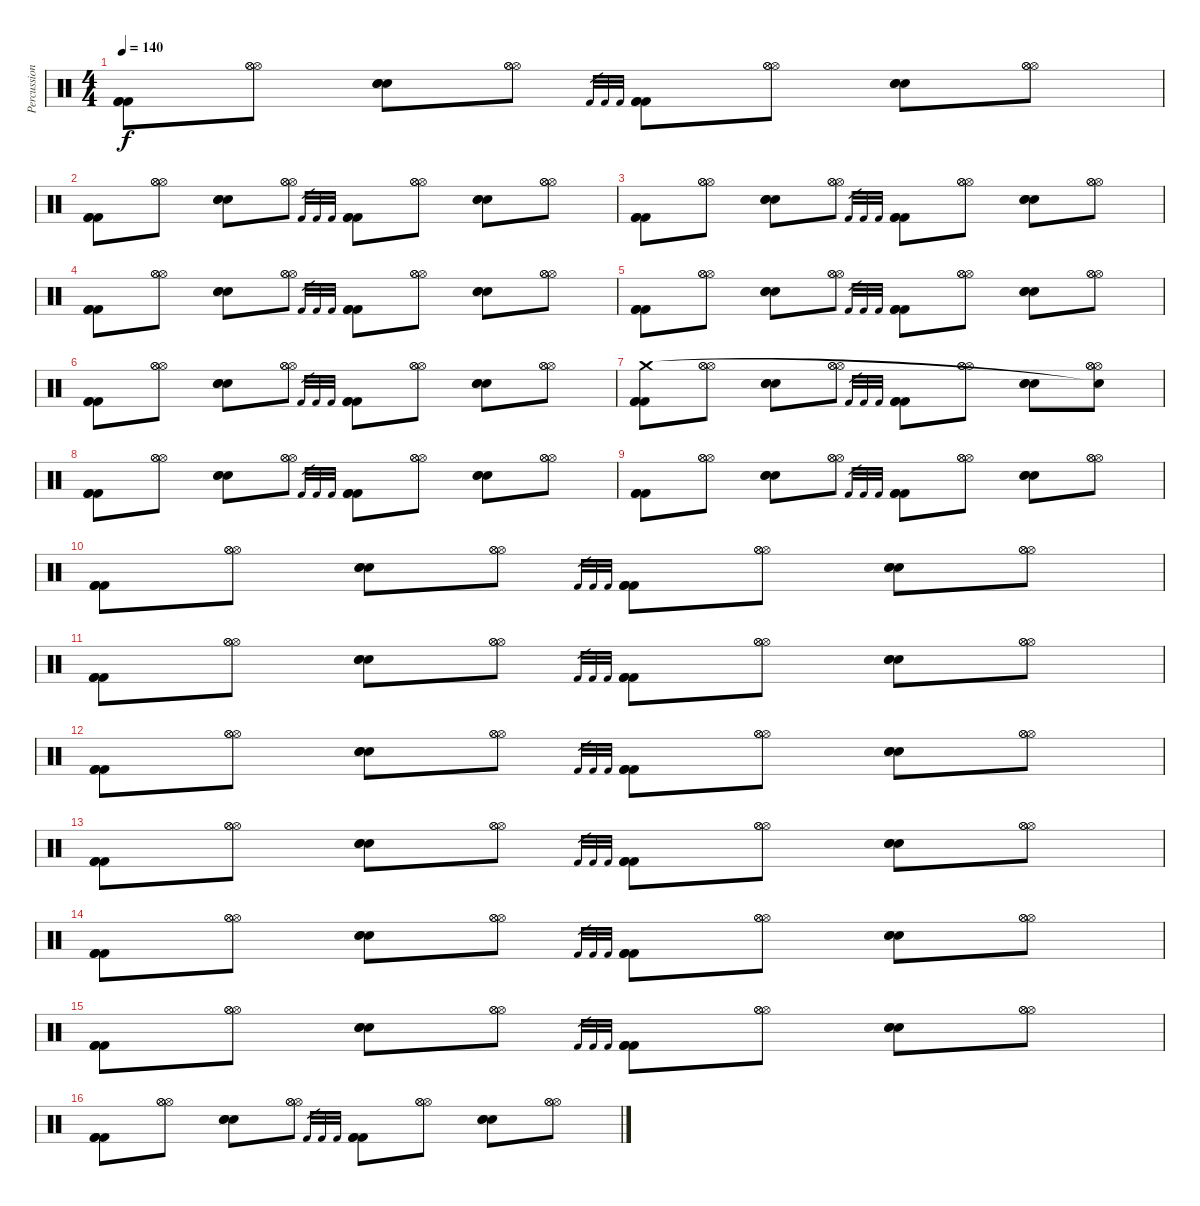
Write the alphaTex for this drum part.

\track ("Percussion" "Percussion") {instrument percussion}
\staff {score}
\articulation defaults
\ts (4 4)
\tempo 140
\clef neutral
\ks c
("Kick (hit) 2" "Kick (hit) 2" "Kick (hit) 2").8{dy f} ("Hi-Hat (open)" "Hi-Hat (open)" "Hi-Hat (open)").8 ("Electric Snare (hit)" "Electric Snare (hit)" "Electric Snare (hit)").8 ("Hi-Hat (open)" "Hi-Hat (open)" "Hi-Hat (open)").8 "Kick (hit) 2".32{gr} "Kick (hit) 2".32{gr} "Kick (hit) 2".32{gr} ("Kick (hit) 2" "Kick (hit) 2" "Kick (hit) 2").8 ("Hi-Hat (open)" "Hi-Hat (open)" "Hi-Hat (open)").8 ("Electric Snare (hit)" "Electric Snare (hit)" "Electric Snare (hit)").8 ("Hi-Hat (open)" "Hi-Hat (open)" "Hi-Hat (open)").8 |
("Kick (hit) 2" "Kick (hit) 2" "Kick (hit) 2").8 ("Hi-Hat (open)" "Hi-Hat (open)" "Hi-Hat (open)").8 ("Electric Snare (hit)" "Electric Snare (hit)" "Electric Snare (hit)").8 ("Hi-Hat (open)" "Hi-Hat (open)" "Hi-Hat (open)").8 "Kick (hit) 2".32{gr} "Kick (hit) 2".32{gr} "Kick (hit) 2".32{gr} ("Kick (hit) 2" "Kick (hit) 2" "Kick (hit) 2").8 ("Hi-Hat (open)" "Hi-Hat (open)" "Hi-Hat (open)").8 ("Electric Snare (hit)" "Electric Snare (hit)" "Electric Snare (hit)").8 ("Hi-Hat (open)" "Hi-Hat (open)" "Hi-Hat (open)").8 |
("Kick (hit) 2" "Kick (hit) 2" "Kick (hit) 2").8 ("Hi-Hat (open)" "Hi-Hat (open)" "Hi-Hat (open)").8 ("Electric Snare (hit)" "Electric Snare (hit)" "Electric Snare (hit)").8 ("Hi-Hat (open)" "Hi-Hat (open)" "Hi-Hat (open)").8 "Kick (hit) 2".32{gr} "Kick (hit) 2".32{gr} "Kick (hit) 2".32{gr} ("Kick (hit) 2" "Kick (hit) 2" "Kick (hit) 2").8 ("Hi-Hat (open)" "Hi-Hat (open)" "Hi-Hat (open)").8 ("Electric Snare (hit)" "Electric Snare (hit)" "Electric Snare (hit)").8 ("Hi-Hat (open)" "Hi-Hat (open)" "Hi-Hat (open)").8 |
("Kick (hit) 2" "Kick (hit) 2" "Kick (hit) 2").8 ("Hi-Hat (open)" "Hi-Hat (open)" "Hi-Hat (open)").8 ("Electric Snare (hit)" "Electric Snare (hit)" "Electric Snare (hit)").8 ("Hi-Hat (open)" "Hi-Hat (open)" "Hi-Hat (open)").8 "Kick (hit) 2".32{gr} "Kick (hit) 2".32{gr} "Kick (hit) 2".32{gr} ("Kick (hit) 2" "Kick (hit) 2" "Kick (hit) 2").8 ("Hi-Hat (open)" "Hi-Hat (open)" "Hi-Hat (open)").8 ("Electric Snare (hit)" "Electric Snare (hit)" "Electric Snare (hit)").8 ("Hi-Hat (open)" "Hi-Hat (open)" "Hi-Hat (open)").8 |
("Kick (hit) 2" "Kick (hit) 2" "Kick (hit) 2").8 ("Hi-Hat (open)" "Hi-Hat (open)" "Hi-Hat (open)").8 ("Electric Snare (hit)" "Electric Snare (hit)" "Electric Snare (hit)").8 ("Hi-Hat (open)" "Hi-Hat (open)" "Hi-Hat (open)").8 "Kick (hit) 2".32{gr} "Kick (hit) 2".32{gr} "Kick (hit) 2".32{gr} ("Kick (hit) 2" "Kick (hit) 2" "Kick (hit) 2").8 ("Hi-Hat (open)" "Hi-Hat (open)" "Hi-Hat (open)").8 ("Electric Snare (hit)" "Electric Snare (hit)" "Electric Snare (hit)").8 ("Hi-Hat (open)" "Hi-Hat (open)" "Hi-Hat (open)").8 |
("Kick (hit) 2" "Kick (hit) 2" "Kick (hit) 2").8 ("Hi-Hat (open)" "Hi-Hat (open)" "Hi-Hat (open)").8 ("Electric Snare (hit)" "Electric Snare (hit)" "Electric Snare (hit)").8 ("Hi-Hat (open)" "Hi-Hat (open)" "Hi-Hat (open)").8 "Kick (hit) 2".32{gr} "Kick (hit) 2".32{gr} "Kick (hit) 2".32{gr} ("Kick (hit) 2" "Kick (hit) 2" "Kick (hit) 2").8 ("Hi-Hat (open)" "Hi-Hat (open)" "Hi-Hat (open)").8 ("Electric Snare (hit)" "Electric Snare (hit)" "Electric Snare (hit)").8 ("Hi-Hat (open)" "Hi-Hat (open)" "Hi-Hat (open)").8 |
("Kick (hit) 2" "Kick (hit) 2" "Kick (hit) 2" "Crash medium (hit)").8 ("Hi-Hat (open)" "Hi-Hat (open)" "Hi-Hat (open)").8 ("Electric Snare (hit)" "Electric Snare (hit)" "Electric Snare (hit)").8 ("Hi-Hat (open)" "Hi-Hat (open)" "Hi-Hat (open)").8 "Kick (hit) 2".32{gr} "Kick (hit) 2".32{gr} "Kick (hit) 2".32{gr} ("Kick (hit) 2" "Kick (hit) 2" "Kick (hit) 2").8 ("Hi-Hat (open)" "Hi-Hat (open)" "Hi-Hat (open)").8 ("Electric Snare (hit)" "Electric Snare (hit)" "Electric Snare (hit)").8 ("Hi-Hat (open)" "Hi-Hat (open)" "Hi-Hat (open)" "Snare (hit)"{t}).8 |
("Kick (hit) 2" "Kick (hit) 2" "Kick (hit) 2").8 ("Hi-Hat (open)" "Hi-Hat (open)" "Hi-Hat (open)").8 ("Electric Snare (hit)" "Electric Snare (hit)" "Electric Snare (hit)").8 ("Hi-Hat (open)" "Hi-Hat (open)" "Hi-Hat (open)").8 "Kick (hit) 2".32{gr} "Kick (hit) 2".32{gr} "Kick (hit) 2".32{gr} ("Kick (hit) 2" "Kick (hit) 2" "Kick (hit) 2").8 ("Hi-Hat (open)" "Hi-Hat (open)" "Hi-Hat (open)").8 ("Electric Snare (hit)" "Electric Snare (hit)" "Electric Snare (hit)").8 ("Hi-Hat (open)" "Hi-Hat (open)" "Hi-Hat (open)").8 |
("Kick (hit) 2" "Kick (hit) 2" "Kick (hit) 2").8 ("Hi-Hat (open)" "Hi-Hat (open)" "Hi-Hat (open)").8 ("Electric Snare (hit)" "Electric Snare (hit)" "Electric Snare (hit)").8 ("Hi-Hat (open)" "Hi-Hat (open)" "Hi-Hat (open)").8 "Kick (hit) 2".32{gr} "Kick (hit) 2".32{gr} "Kick (hit) 2".32{gr} ("Kick (hit) 2" "Kick (hit) 2" "Kick (hit) 2").8 ("Hi-Hat (open)" "Hi-Hat (open)" "Hi-Hat (open)").8 ("Electric Snare (hit)" "Electric Snare (hit)" "Electric Snare (hit)").8 ("Hi-Hat (open)" "Hi-Hat (open)" "Hi-Hat (open)").8 |
("Kick (hit) 2" "Kick (hit) 2" "Kick (hit) 2").8 ("Hi-Hat (open)" "Hi-Hat (open)" "Hi-Hat (open)").8 ("Electric Snare (hit)" "Electric Snare (hit)" "Electric Snare (hit)").8 ("Hi-Hat (open)" "Hi-Hat (open)" "Hi-Hat (open)").8 "Kick (hit) 2".32{gr} "Kick (hit) 2".32{gr} "Kick (hit) 2".32{gr} ("Kick (hit) 2" "Kick (hit) 2" "Kick (hit) 2").8 ("Hi-Hat (open)" "Hi-Hat (open)" "Hi-Hat (open)").8 ("Electric Snare (hit)" "Electric Snare (hit)" "Electric Snare (hit)").8 ("Hi-Hat (open)" "Hi-Hat (open)" "Hi-Hat (open)").8 |
("Kick (hit) 2" "Kick (hit) 2" "Kick (hit) 2").8 ("Hi-Hat (open)" "Hi-Hat (open)" "Hi-Hat (open)").8 ("Electric Snare (hit)" "Electric Snare (hit)" "Electric Snare (hit)").8 ("Hi-Hat (open)" "Hi-Hat (open)" "Hi-Hat (open)").8 "Kick (hit) 2".32{gr} "Kick (hit) 2".32{gr} "Kick (hit) 2".32{gr} ("Kick (hit) 2" "Kick (hit) 2" "Kick (hit) 2").8 ("Hi-Hat (open)" "Hi-Hat (open)" "Hi-Hat (open)").8 ("Electric Snare (hit)" "Electric Snare (hit)" "Electric Snare (hit)").8 ("Hi-Hat (open)" "Hi-Hat (open)" "Hi-Hat (open)").8 |
("Kick (hit) 2" "Kick (hit) 2" "Kick (hit) 2").8 ("Hi-Hat (open)" "Hi-Hat (open)" "Hi-Hat (open)").8 ("Electric Snare (hit)" "Electric Snare (hit)" "Electric Snare (hit)").8 ("Hi-Hat (open)" "Hi-Hat (open)" "Hi-Hat (open)").8 "Kick (hit) 2".32{gr} "Kick (hit) 2".32{gr} "Kick (hit) 2".32{gr} ("Kick (hit) 2" "Kick (hit) 2" "Kick (hit) 2").8 ("Hi-Hat (open)" "Hi-Hat (open)" "Hi-Hat (open)").8 ("Electric Snare (hit)" "Electric Snare (hit)" "Electric Snare (hit)").8 ("Hi-Hat (open)" "Hi-Hat (open)" "Hi-Hat (open)").8 |
("Kick (hit) 2" "Kick (hit) 2" "Kick (hit) 2").8 ("Hi-Hat (open)" "Hi-Hat (open)" "Hi-Hat (open)").8 ("Electric Snare (hit)" "Electric Snare (hit)" "Electric Snare (hit)").8 ("Hi-Hat (open)" "Hi-Hat (open)" "Hi-Hat (open)").8 "Kick (hit) 2".32{gr} "Kick (hit) 2".32{gr} "Kick (hit) 2".32{gr} ("Kick (hit) 2" "Kick (hit) 2" "Kick (hit) 2").8 ("Hi-Hat (open)" "Hi-Hat (open)" "Hi-Hat (open)").8 ("Electric Snare (hit)" "Electric Snare (hit)" "Electric Snare (hit)").8 ("Hi-Hat (open)" "Hi-Hat (open)" "Hi-Hat (open)").8 |
("Kick (hit) 2" "Kick (hit) 2" "Kick (hit) 2").8 ("Hi-Hat (open)" "Hi-Hat (open)" "Hi-Hat (open)").8 ("Electric Snare (hit)" "Electric Snare (hit)" "Electric Snare (hit)").8 ("Hi-Hat (open)" "Hi-Hat (open)" "Hi-Hat (open)").8 "Kick (hit) 2".32{gr} "Kick (hit) 2".32{gr} "Kick (hit) 2".32{gr} ("Kick (hit) 2" "Kick (hit) 2" "Kick (hit) 2").8 ("Hi-Hat (open)" "Hi-Hat (open)" "Hi-Hat (open)").8 ("Electric Snare (hit)" "Electric Snare (hit)" "Electric Snare (hit)").8 ("Hi-Hat (open)" "Hi-Hat (open)" "Hi-Hat (open)").8 |
("Kick (hit) 2" "Kick (hit) 2" "Kick (hit) 2").8 ("Hi-Hat (open)" "Hi-Hat (open)" "Hi-Hat (open)").8 ("Electric Snare (hit)" "Electric Snare (hit)" "Electric Snare (hit)").8 ("Hi-Hat (open)" "Hi-Hat (open)" "Hi-Hat (open)").8 "Kick (hit) 2".32{gr} "Kick (hit) 2".32{gr} "Kick (hit) 2".32{gr} ("Kick (hit) 2" "Kick (hit) 2" "Kick (hit) 2").8 ("Hi-Hat (open)" "Hi-Hat (open)" "Hi-Hat (open)").8 ("Electric Snare (hit)" "Electric Snare (hit)" "Electric Snare (hit)").8 ("Hi-Hat (open)" "Hi-Hat (open)" "Hi-Hat (open)").8 |
("Kick (hit) 2" "Kick (hit) 2" "Kick (hit) 2").8 ("Hi-Hat (open)" "Hi-Hat (open)" "Hi-Hat (open)").8 ("Electric Snare (hit)" "Electric Snare (hit)" "Electric Snare (hit)").8 ("Hi-Hat (open)" "Hi-Hat (open)" "Hi-Hat (open)").8 "Kick (hit) 2".32{gr} "Kick (hit) 2".32{gr} "Kick (hit) 2".32{gr} ("Kick (hit) 2" "Kick (hit) 2" "Kick (hit) 2").8 ("Hi-Hat (open)" "Hi-Hat (open)" "Hi-Hat (open)").8 ("Electric Snare (hit)" "Electric Snare (hit)" "Electric Snare (hit)").8 ("Hi-Hat (open)" "Hi-Hat (open)" "Hi-Hat (open)").8
